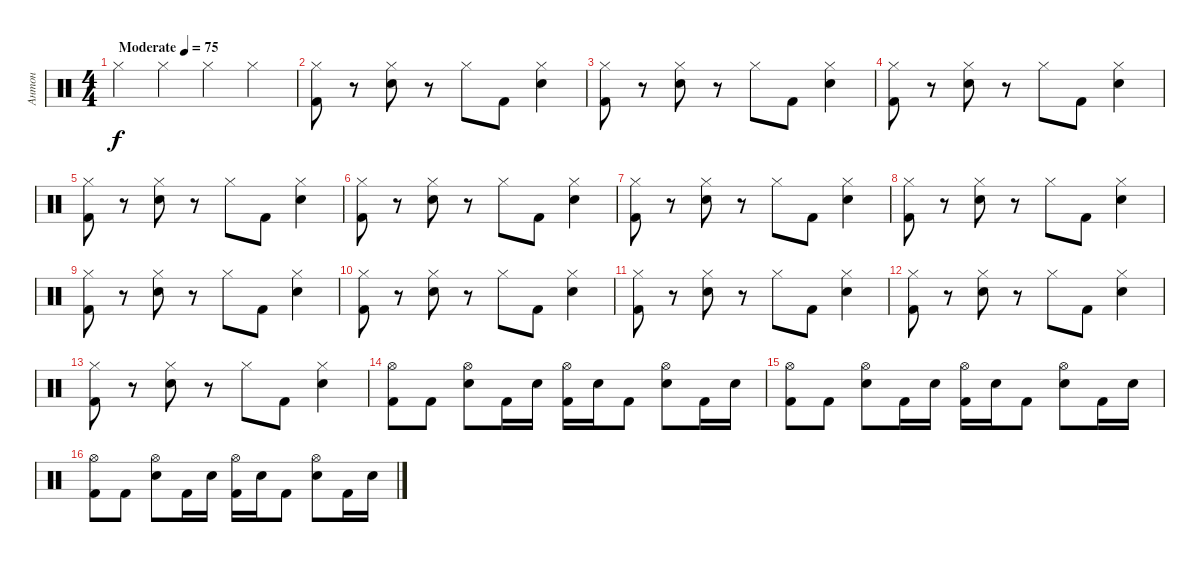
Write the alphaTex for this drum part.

\track ("Антон" "Антон") {instrument percussion}
\staff {score}
\articulation defaults
\ts (4 4)
\tempo (75 "Moderate")
\clef neutral
\ks c "Hi-Hat (closed)".4{dy f} "Hi-Hat (closed)".4 "Hi-Hat (closed)".4 "Hi-Hat (closed)".4
|
("Hi-Hat (closed)" "Kick (hit) 2").8 r.8 ("Hi-Hat (closed)" "Electric Snare (hit)").8 r.8 "Hi-Hat (closed)".8 "Kick (hit) 2".8 ("Hi-Hat (closed)" "Electric Snare (hit)").4 |
("Hi-Hat (closed)" "Kick (hit) 2").8 r.8 ("Hi-Hat (closed)" "Electric Snare (hit)").8 r.8 "Hi-Hat (closed)".8 "Kick (hit) 2".8 ("Hi-Hat (closed)" "Electric Snare (hit)").4 |
("Hi-Hat (closed)" "Kick (hit) 2").8 r.8 ("Hi-Hat (closed)" "Electric Snare (hit)").8 r.8 "Hi-Hat (closed)".8 "Kick (hit) 2".8 ("Hi-Hat (closed)" "Electric Snare (hit)").4 |
("Hi-Hat (closed)" "Kick (hit) 2").8 r.8 ("Hi-Hat (closed)" "Electric Snare (hit)").8 r.8 "Hi-Hat (closed)".8 "Kick (hit) 2".8 ("Hi-Hat (closed)" "Electric Snare (hit)").4 |
("Hi-Hat (closed)" "Kick (hit) 2").8 r.8 ("Hi-Hat (closed)" "Electric Snare (hit)").8 r.8 "Hi-Hat (closed)".8 "Kick (hit) 2".8 ("Hi-Hat (closed)" "Electric Snare (hit)").4 |
("Hi-Hat (closed)" "Kick (hit) 2").8 r.8 ("Hi-Hat (closed)" "Electric Snare (hit)").8 r.8 "Hi-Hat (closed)".8 "Kick (hit) 2".8 ("Hi-Hat (closed)" "Electric Snare (hit)").4 |
("Hi-Hat (closed)" "Kick (hit) 2").8 r.8 ("Hi-Hat (closed)" "Electric Snare (hit)").8 r.8 "Hi-Hat (closed)".8 "Kick (hit) 2".8 ("Hi-Hat (closed)" "Electric Snare (hit)").4 |
("Hi-Hat (closed)" "Kick (hit) 2").8 r.8 ("Hi-Hat (closed)" "Electric Snare (hit)").8 r.8 "Hi-Hat (closed)".8 "Kick (hit) 2".8 ("Hi-Hat (closed)" "Electric Snare (hit)").4 |
("Hi-Hat (closed)" "Kick (hit) 2").8 r.8 ("Hi-Hat (closed)" "Electric Snare (hit)").8 r.8 "Hi-Hat (closed)".8 "Kick (hit) 2".8 ("Hi-Hat (closed)" "Electric Snare (hit)").4 |
("Hi-Hat (closed)" "Kick (hit) 2").8 r.8 ("Hi-Hat (closed)" "Electric Snare (hit)").8 r.8 "Hi-Hat (closed)".8 "Kick (hit) 2".8 ("Hi-Hat (closed)" "Electric Snare (hit)").4 |
("Hi-Hat (closed)" "Kick (hit) 2").8 r.8 ("Hi-Hat (closed)" "Electric Snare (hit)").8 r.8 "Hi-Hat (closed)".8 "Kick (hit) 2".8 ("Hi-Hat (closed)" "Electric Snare (hit)").4 |
("Hi-Hat (closed)" "Kick (hit) 2").8 r.8 ("Hi-Hat (closed)" "Electric Snare (hit)").8 r.8 "Hi-Hat (closed)".8 "Kick (hit) 2".8 ("Hi-Hat (closed)" "Electric Snare (hit)").4 |
("Hi-Hat (open)" "Kick (hit) 2").8 "Kick (hit) 2".8 ("Hi-Hat (open)" "Electric Snare (hit)").8 "Kick (hit) 2".16 "Electric Snare (hit)".16 ("Hi-Hat (open)" "Kick (hit) 2").16 "Electric Snare (hit)".16 "Kick (hit) 2".8 ("Hi-Hat (open)" "Electric Snare (hit)").8 "Kick (hit) 2".16 "Electric Snare (hit)".16 |
("Hi-Hat (open)" "Kick (hit) 2").8 "Kick (hit) 2".8 ("Hi-Hat (open)" "Electric Snare (hit)").8 "Kick (hit) 2".16 "Electric Snare (hit)".16 ("Hi-Hat (open)" "Kick (hit) 2").16 "Electric Snare (hit)".16 "Kick (hit) 2".8 ("Hi-Hat (open)" "Electric Snare (hit)").8 "Kick (hit) 2".16 "Electric Snare (hit)".16 |
("Hi-Hat (open)" "Kick (hit) 2").8 "Kick (hit) 2".8 ("Hi-Hat (open)" "Electric Snare (hit)").8 "Kick (hit) 2".16 "Electric Snare (hit)".16 ("Hi-Hat (open)" "Kick (hit) 2").16 "Electric Snare (hit)".16 "Kick (hit) 2".8 ("Hi-Hat (open)" "Electric Snare (hit)").8 "Kick (hit) 2".16 "Electric Snare (hit)".16
